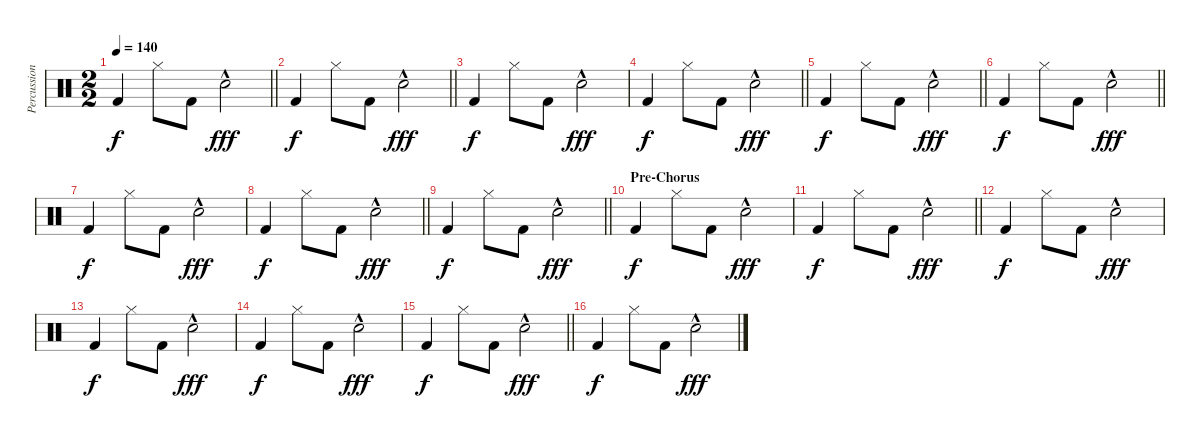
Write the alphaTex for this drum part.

\track ("Percussion" "Percussion") {instrument percussion}
\staff {score}
\articulation defaults
\ts (2 2)
\tempo 140
\clef neutral
\barLineRight lightlight
\ks c "Kick (hit) 2".4{dy f} "Hi-Hat (closed)".8 "Kick (hit) 2".8 "Hand Clap (hit)"{hac}.2{dy fff}
|
\barLineRight lightlight "Kick (hit) 2".4{dy f} "Hi-Hat (closed)".8 "Kick (hit) 2".8 "Hand Clap (hit)"{hac}.2{dy fff}
|
"Kick (hit) 2".4{dy f} "Hi-Hat (closed)".8 "Kick (hit) 2".8 "Hand Clap (hit)"{hac}.2{dy fff} |
\barLineRight lightlight "Kick (hit) 2".4{dy f} "Hi-Hat (closed)".8 "Kick (hit) 2".8 "Hand Clap (hit)"{hac}.2{dy fff}
|
\barLineRight lightlight "Kick (hit) 2".4{dy f} "Hi-Hat (closed)".8 "Kick (hit) 2".8 "Hand Clap (hit)"{hac}.2{dy fff}
|
\barLineRight lightlight "Kick (hit) 2".4{dy f} "Hi-Hat (closed)".8 "Kick (hit) 2".8 "Hand Clap (hit)"{hac}.2{dy fff}
|
"Kick (hit) 2".4{dy f} "Hi-Hat (closed)".8 "Kick (hit) 2".8 "Hand Clap (hit)"{hac}.2{dy fff} |
\barLineRight lightlight "Kick (hit) 2".4{dy f} "Hi-Hat (closed)".8 "Kick (hit) 2".8 "Hand Clap (hit)"{hac}.2{dy fff}
|
\barLineRight lightlight "Kick (hit) 2".4{dy f} "Hi-Hat (closed)".8 "Kick (hit) 2".8 "Hand Clap (hit)"{hac}.2{dy fff}
|
\section ("" "Pre-Chorus")
"Kick (hit) 2".4{dy f} "Hi-Hat (closed)".8 "Kick (hit) 2".8 "Hand Clap (hit)"{hac}.2{dy fff} |
\barLineRight lightlight "Kick (hit) 2".4{dy f} "Hi-Hat (closed)".8 "Kick (hit) 2".8 "Hand Clap (hit)"{hac}.2{dy fff}
|
"Kick (hit) 2".4{dy f} "Hi-Hat (closed)".8 "Kick (hit) 2".8 "Hand Clap (hit)"{hac}.2{dy fff} |
"Kick (hit) 2".4{dy f} "Hi-Hat (closed)".8 "Kick (hit) 2".8 "Hand Clap (hit)"{hac}.2{dy fff} |
"Kick (hit) 2".4{dy f} "Hi-Hat (closed)".8 "Kick (hit) 2".8 "Hand Clap (hit)"{hac}.2{dy fff} |
\barLineRight lightlight "Kick (hit) 2".4{dy f} "Hi-Hat (closed)".8 "Kick (hit) 2".8 "Hand Clap (hit)"{hac}.2{dy fff}
|
"Kick (hit) 2".4{dy f} "Hi-Hat (closed)".8 "Kick (hit) 2".8 "Hand Clap (hit)"{hac}.2{dy fff}
